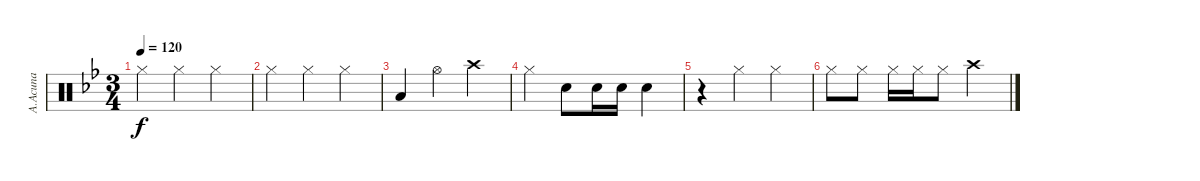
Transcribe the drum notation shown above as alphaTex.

\track ("A.Acuna" "A.Acuna") {instrument percussion}
\staff {score}
\articulation defaults
\ts (3 4)
\tempo 120
\clef neutral
\ks bb "Hi-Hat (closed)".4{dy f} "Hi-Hat (closed)".4 "Hi-Hat (closed)".4
|
"Hi-Hat (closed)".4 "Hi-Hat (closed)".4 "Hi-Hat (closed)".4 |
"Low Tom (hit)".4 "Hi-Hat (open)".4 "Crash high (hit)".4 |
"Hi-Hat (closed)".4 "Electric Snare (hit)".8 "Electric Snare (hit)".16 "Electric Snare (hit)".16 "Electric Snare (hit)".4 |
r.4 "Hi-Hat (closed)".4 "Hi-Hat (closed)".4 |
"Hi-Hat (closed)".8 "Hi-Hat (closed)".8 "Hi-Hat (closed)".16 "Hi-Hat (closed)".16 "Hi-Hat (closed)".8 "Crash high (hit)".4
